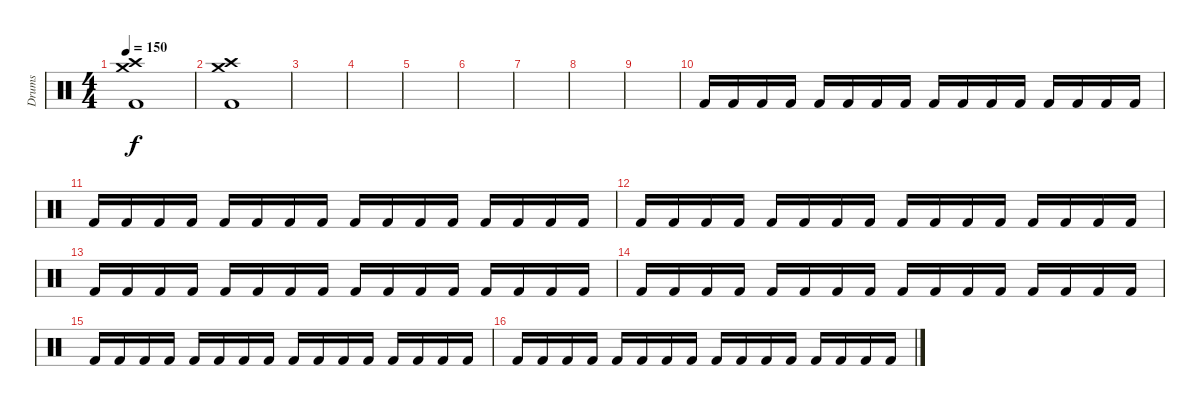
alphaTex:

\track ("Drums" "Drums") {instrument percussion}
\staff {score}
\articulation defaults
\ts (4 4)
\tempo 150
\clef neutral
\ks c
("Crash medium (hit)" "Crash high (hit)" "Kick (hit) 2").1{dy f} |
("Crash medium (hit)" "Crash high (hit)" "Kick (hit) 2").1 |
|
|
|
|
|
|
|
"Kick (hit) 2".16 "Kick (hit) 2".16 "Kick (hit) 2".16 "Kick (hit) 2".16 "Kick (hit) 2".16 "Kick (hit) 2".16 "Kick (hit) 2".16 "Kick (hit) 2".16 "Kick (hit) 2".16 "Kick (hit) 2".16 "Kick (hit) 2".16 "Kick (hit) 2".16 "Kick (hit) 2".16 "Kick (hit) 2".16 "Kick (hit) 2".16 "Kick (hit) 2".16 |
"Kick (hit) 2".16 "Kick (hit) 2".16 "Kick (hit) 2".16 "Kick (hit) 2".16 "Kick (hit) 2".16 "Kick (hit) 2".16 "Kick (hit) 2".16 "Kick (hit) 2".16 "Kick (hit) 2".16 "Kick (hit) 2".16 "Kick (hit) 2".16 "Kick (hit) 2".16 "Kick (hit) 2".16 "Kick (hit) 2".16 "Kick (hit) 2".16 "Kick (hit) 2".16 |
"Kick (hit) 2".16 "Kick (hit) 2".16 "Kick (hit) 2".16 "Kick (hit) 2".16 "Kick (hit) 2".16 "Kick (hit) 2".16 "Kick (hit) 2".16 "Kick (hit) 2".16 "Kick (hit) 2".16 "Kick (hit) 2".16 "Kick (hit) 2".16 "Kick (hit) 2".16 "Kick (hit) 2".16 "Kick (hit) 2".16 "Kick (hit) 2".16 "Kick (hit) 2".16 |
"Kick (hit) 2".16 "Kick (hit) 2".16 "Kick (hit) 2".16 "Kick (hit) 2".16 "Kick (hit) 2".16 "Kick (hit) 2".16 "Kick (hit) 2".16 "Kick (hit) 2".16 "Kick (hit) 2".16 "Kick (hit) 2".16 "Kick (hit) 2".16 "Kick (hit) 2".16 "Kick (hit) 2".16 "Kick (hit) 2".16 "Kick (hit) 2".16 "Kick (hit) 2".16 |
"Kick (hit) 2".16 "Kick (hit) 2".16 "Kick (hit) 2".16 "Kick (hit) 2".16 "Kick (hit) 2".16 "Kick (hit) 2".16 "Kick (hit) 2".16 "Kick (hit) 2".16 "Kick (hit) 2".16 "Kick (hit) 2".16 "Kick (hit) 2".16 "Kick (hit) 2".16 "Kick (hit) 2".16 "Kick (hit) 2".16 "Kick (hit) 2".16 "Kick (hit) 2".16 |
"Kick (hit) 2".16 "Kick (hit) 2".16 "Kick (hit) 2".16 "Kick (hit) 2".16 "Kick (hit) 2".16 "Kick (hit) 2".16 "Kick (hit) 2".16 "Kick (hit) 2".16 "Kick (hit) 2".16 "Kick (hit) 2".16 "Kick (hit) 2".16 "Kick (hit) 2".16 "Kick (hit) 2".16 "Kick (hit) 2".16 "Kick (hit) 2".16 "Kick (hit) 2".16 |
"Kick (hit) 2".16 "Kick (hit) 2".16 "Kick (hit) 2".16 "Kick (hit) 2".16 "Kick (hit) 2".16 "Kick (hit) 2".16 "Kick (hit) 2".16 "Kick (hit) 2".16 "Kick (hit) 2".16 "Kick (hit) 2".16 "Kick (hit) 2".16 "Kick (hit) 2".16 "Kick (hit) 2".16 "Kick (hit) 2".16 "Kick (hit) 2".16 "Kick (hit) 2".16
